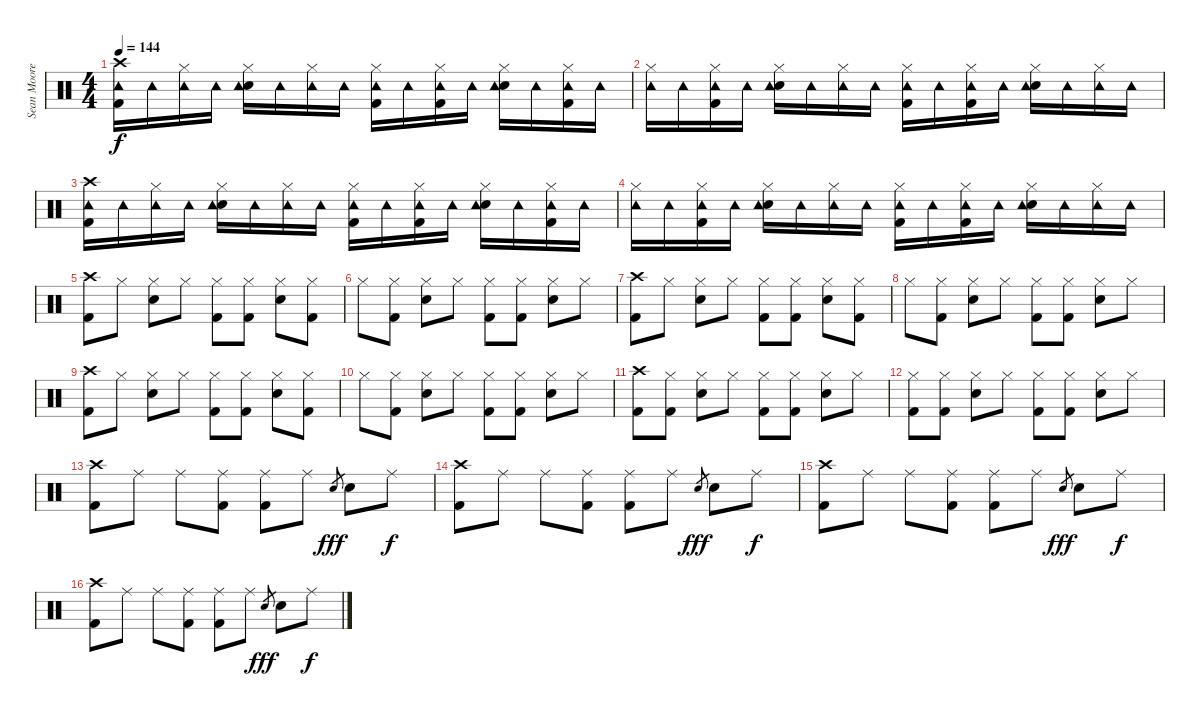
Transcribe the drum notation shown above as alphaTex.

\track ("Sean Moore" "Sean Moore") {instrument percussion}
\staff {score}
\articulation defaults
\ts (4 4)
\tempo 144
\clef neutral
\ks c
("Crash high (hit)" "Kick (hit) 2" "Tambourine (hit)").16{dy f} "Tambourine (hit)".16 ("Hi-Hat (closed)" "Tambourine (hit)").16 "Tambourine (hit)".16 ("Hi-Hat (closed)" "Snare (hit) 2" "Tambourine (hit)").16 "Tambourine (hit)".16 ("Hi-Hat (closed)" "Tambourine (hit)").16 "Tambourine (hit)".16 ("Hi-Hat (closed)" "Kick (hit) 2" "Tambourine (hit)").16 "Tambourine (hit)".16 ("Hi-Hat (closed)" "Kick (hit) 2" "Tambourine (hit)").16 "Tambourine (hit)".16 ("Hi-Hat (closed)" "Snare (hit) 2" "Tambourine (hit)").16 "Tambourine (hit)".16 ("Hi-Hat (closed)" "Kick (hit) 2" "Tambourine (hit)").16 "Tambourine (hit)".16 |
("Hi-Hat (closed)" "Tambourine (hit)").16 "Tambourine (hit)".16 ("Hi-Hat (closed)" "Kick (hit) 2" "Tambourine (hit)").16 "Tambourine (hit)".16 ("Hi-Hat (closed)" "Snare (hit) 2" "Tambourine (hit)").16 "Tambourine (hit)".16 ("Hi-Hat (closed)" "Tambourine (hit)").16 "Tambourine (hit)".16 ("Hi-Hat (closed)" "Kick (hit) 2" "Tambourine (hit)").16 "Tambourine (hit)".16 ("Hi-Hat (closed)" "Kick (hit) 2" "Tambourine (hit)").16 "Tambourine (hit)".16 ("Hi-Hat (closed)" "Snare (hit) 2" "Tambourine (hit)").16 "Tambourine (hit)".16 ("Hi-Hat (closed)" "Tambourine (hit)").16 "Tambourine (hit)".16 |
("Crash high (hit)" "Kick (hit) 2" "Tambourine (hit)").16 "Tambourine (hit)".16 ("Hi-Hat (closed)" "Tambourine (hit)").16 "Tambourine (hit)".16 ("Hi-Hat (closed)" "Snare (hit) 2" "Tambourine (hit)").16 "Tambourine (hit)".16 ("Hi-Hat (closed)" "Tambourine (hit)").16 "Tambourine (hit)".16 ("Hi-Hat (closed)" "Kick (hit) 2" "Tambourine (hit)").16 "Tambourine (hit)".16 ("Hi-Hat (closed)" "Kick (hit) 2" "Tambourine (hit)").16 "Tambourine (hit)".16 ("Hi-Hat (closed)" "Snare (hit) 2" "Tambourine (hit)").16 "Tambourine (hit)".16 ("Hi-Hat (closed)" "Kick (hit) 2" "Tambourine (hit)").16 "Tambourine (hit)".16 |
("Hi-Hat (closed)" "Tambourine (hit)").16 "Tambourine (hit)".16 ("Hi-Hat (closed)" "Kick (hit) 2" "Tambourine (hit)").16 "Tambourine (hit)".16 ("Hi-Hat (closed)" "Snare (hit) 2" "Tambourine (hit)").16 "Tambourine (hit)".16 ("Hi-Hat (closed)" "Tambourine (hit)").16 "Tambourine (hit)".16 ("Hi-Hat (closed)" "Kick (hit) 2" "Tambourine (hit)").16 "Tambourine (hit)".16 ("Hi-Hat (closed)" "Kick (hit) 2" "Tambourine (hit)").16 "Tambourine (hit)".16 ("Hi-Hat (closed)" "Snare (hit) 2" "Tambourine (hit)").16 "Tambourine (hit)".16 ("Hi-Hat (closed)" "Tambourine (hit)").16 "Tambourine (hit)".16 |
("Crash high (hit)" "Kick (hit) 2").8 "Hi-Hat (closed)".8 ("Hi-Hat (closed)" "Snare (hit) 2").8 "Hi-Hat (closed)".8 ("Hi-Hat (closed)" "Kick (hit) 2").8 ("Hi-Hat (closed)" "Kick (hit) 2").8 ("Hi-Hat (closed)" "Snare (hit) 2").8 ("Hi-Hat (closed)" "Kick (hit) 2").8 |
"Hi-Hat (closed)".8 ("Hi-Hat (closed)" "Kick (hit) 2").8 ("Hi-Hat (closed)" "Snare (hit) 2").8 "Hi-Hat (closed)".8 ("Hi-Hat (closed)" "Kick (hit) 2").8 ("Hi-Hat (closed)" "Kick (hit) 2").8 ("Hi-Hat (closed)" "Snare (hit) 2").8 "Hi-Hat (closed)".8 |
("Crash high (hit)" "Kick (hit) 2").8 "Hi-Hat (closed)".8 ("Hi-Hat (closed)" "Snare (hit) 2").8 "Hi-Hat (closed)".8 ("Hi-Hat (closed)" "Kick (hit) 2").8 ("Hi-Hat (closed)" "Kick (hit) 2").8 ("Hi-Hat (closed)" "Snare (hit) 2").8 ("Hi-Hat (closed)" "Kick (hit) 2").8 |
"Hi-Hat (closed)".8 ("Hi-Hat (closed)" "Kick (hit) 2").8 ("Hi-Hat (closed)" "Snare (hit) 2").8 "Hi-Hat (closed)".8 ("Hi-Hat (closed)" "Kick (hit) 2").8 ("Hi-Hat (closed)" "Kick (hit) 2").8 ("Hi-Hat (closed)" "Snare (hit) 2").8 "Hi-Hat (closed)".8 |
("Crash high (hit)" "Kick (hit) 2").8 "Hi-Hat (closed)".8 ("Hi-Hat (closed)" "Snare (hit) 2").8 "Hi-Hat (closed)".8 ("Hi-Hat (closed)" "Kick (hit) 2").8 ("Hi-Hat (closed)" "Kick (hit) 2").8 ("Hi-Hat (closed)" "Snare (hit) 2").8 ("Hi-Hat (closed)" "Kick (hit) 2").8 |
"Hi-Hat (closed)".8 ("Hi-Hat (closed)" "Kick (hit) 2").8 ("Hi-Hat (closed)" "Snare (hit) 2").8 "Hi-Hat (closed)".8 ("Hi-Hat (closed)" "Kick (hit) 2").8 ("Hi-Hat (closed)" "Kick (hit) 2").8 ("Hi-Hat (closed)" "Snare (hit) 2").8 "Hi-Hat (closed)".8 |
("Crash high (hit)" "Kick (hit) 2").8 ("Hi-Hat (closed)" "Kick (hit) 2").8 ("Hi-Hat (closed)" "Snare (hit) 2").8 "Hi-Hat (closed)".8 ("Hi-Hat (closed)" "Kick (hit) 2").8 ("Hi-Hat (closed)" "Kick (hit) 2").8 ("Hi-Hat (closed)" "Snare (hit) 2").8 "Hi-Hat (closed)".8 |
("Hi-Hat (closed)" "Kick (hit) 2").8 ("Hi-Hat (closed)" "Kick (hit) 2").8 ("Hi-Hat (closed)" "Snare (hit) 2").8 "Hi-Hat (closed)".8 ("Hi-Hat (closed)" "Kick (hit) 2").8 ("Hi-Hat (closed)" "Kick (hit) 2").8 ("Hi-Hat (closed)" "Snare (hit) 2").8 "Hi-Hat (closed)".8 |
("Crash high (hit)" "Kick (hit) 2").8 "Ride (middle)".8 "Ride (middle)".8 ("Ride (middle)" "Kick (hit) 2").8 ("Ride (middle)" "Kick (hit) 2").8 "Ride (middle)".8 "Snare (hit) 2".8{gr dy fff} "Snare (hit) 2".8 "Ride (middle)".8{dy f} |
("Crash high (hit)" "Kick (hit) 2").8 "Ride (middle)".8 "Ride (middle)".8 ("Ride (middle)" "Kick (hit) 2").8 ("Ride (middle)" "Kick (hit) 2").8 "Ride (middle)".8 "Snare (hit) 2".8{gr dy fff} "Snare (hit) 2".8 "Ride (middle)".8{dy f} |
("Crash high (hit)" "Kick (hit) 2").8 "Ride (middle)".8 "Ride (middle)".8 ("Ride (middle)" "Kick (hit) 2").8 ("Ride (middle)" "Kick (hit) 2").8 "Ride (middle)".8 "Snare (hit) 2".8{gr dy fff} "Snare (hit) 2".8 "Ride (middle)".8{dy f} |
("Crash high (hit)" "Kick (hit) 2").8 "Ride (middle)".8 "Ride (middle)".8 ("Ride (middle)" "Kick (hit) 2").8 ("Ride (middle)" "Kick (hit) 2").8 "Ride (middle)".8 "Snare (hit) 2".8{gr dy fff} "Snare (hit) 2".8 "Ride (middle)".8{dy f}
